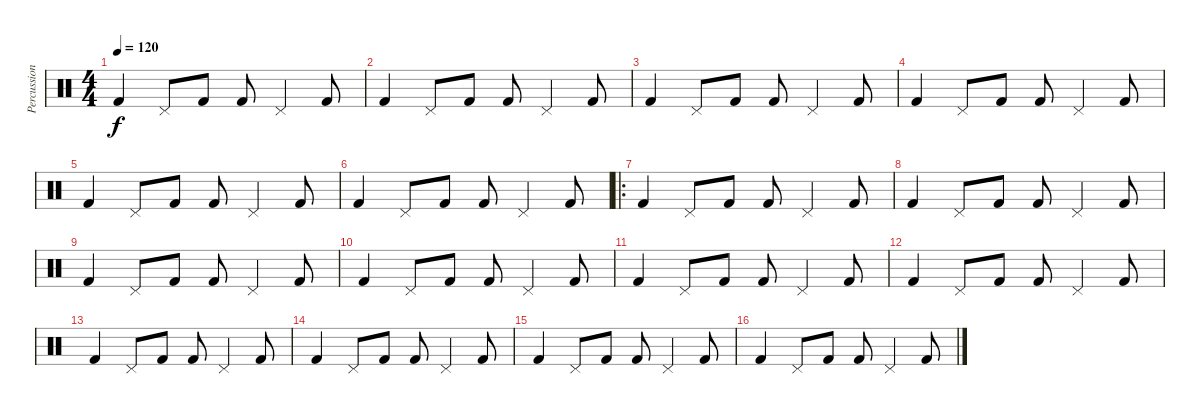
\track ("Percussions" "Percussion") {instrument percussion}
\staff {score}
\articulation defaults
\ts (4 4)
\tempo 120
\clef neutral
\ks c "Kick (hit) 2".4{dy f} "Pedal Hi-Hat (hit)".8 "Kick (hit) 2".8 "Kick (hit) 2".8 "Pedal Hi-Hat (hit)".4 "Kick (hit) 2".8
|
"Kick (hit) 2".4 "Pedal Hi-Hat (hit)".8 "Kick (hit) 2".8 "Kick (hit) 2".8 "Pedal Hi-Hat (hit)".4 "Kick (hit) 2".8 |
"Kick (hit) 2".4 "Pedal Hi-Hat (hit)".8 "Kick (hit) 2".8 "Kick (hit) 2".8 "Pedal Hi-Hat (hit)".4 "Kick (hit) 2".8 |
"Kick (hit) 2".4 "Pedal Hi-Hat (hit)".8 "Kick (hit) 2".8 "Kick (hit) 2".8 "Pedal Hi-Hat (hit)".4 "Kick (hit) 2".8 |
"Kick (hit) 2".4 "Pedal Hi-Hat (hit)".8 "Kick (hit) 2".8 "Kick (hit) 2".8 "Pedal Hi-Hat (hit)".4 "Kick (hit) 2".8 |
"Kick (hit) 2".4 "Pedal Hi-Hat (hit)".8 "Kick (hit) 2".8 "Kick (hit) 2".8 "Pedal Hi-Hat (hit)".4 "Kick (hit) 2".8 |
\ro "Kick (hit) 2".4 "Pedal Hi-Hat (hit)".8 "Kick (hit) 2".8 "Kick (hit) 2".8 "Pedal Hi-Hat (hit)".4 "Kick (hit) 2".8
|
"Kick (hit) 2".4 "Pedal Hi-Hat (hit)".8 "Kick (hit) 2".8 "Kick (hit) 2".8 "Pedal Hi-Hat (hit)".4 "Kick (hit) 2".8 |
"Kick (hit) 2".4 "Pedal Hi-Hat (hit)".8 "Kick (hit) 2".8 "Kick (hit) 2".8 "Pedal Hi-Hat (hit)".4 "Kick (hit) 2".8 |
"Kick (hit) 2".4 "Pedal Hi-Hat (hit)".8 "Kick (hit) 2".8 "Kick (hit) 2".8 "Pedal Hi-Hat (hit)".4 "Kick (hit) 2".8 |
"Kick (hit) 2".4 "Pedal Hi-Hat (hit)".8 "Kick (hit) 2".8 "Kick (hit) 2".8 "Pedal Hi-Hat (hit)".4 "Kick (hit) 2".8 |
"Kick (hit) 2".4 "Pedal Hi-Hat (hit)".8 "Kick (hit) 2".8 "Kick (hit) 2".8 "Pedal Hi-Hat (hit)".4 "Kick (hit) 2".8 |
"Kick (hit) 2".4 "Pedal Hi-Hat (hit)".8 "Kick (hit) 2".8 "Kick (hit) 2".8 "Pedal Hi-Hat (hit)".4 "Kick (hit) 2".8 |
"Kick (hit) 2".4 "Pedal Hi-Hat (hit)".8 "Kick (hit) 2".8 "Kick (hit) 2".8 "Pedal Hi-Hat (hit)".4 "Kick (hit) 2".8 |
"Kick (hit) 2".4 "Pedal Hi-Hat (hit)".8 "Kick (hit) 2".8 "Kick (hit) 2".8 "Pedal Hi-Hat (hit)".4 "Kick (hit) 2".8 |
"Kick (hit) 2".4 "Pedal Hi-Hat (hit)".8 "Kick (hit) 2".8 "Kick (hit) 2".8 "Pedal Hi-Hat (hit)".4 "Kick (hit) 2".8
